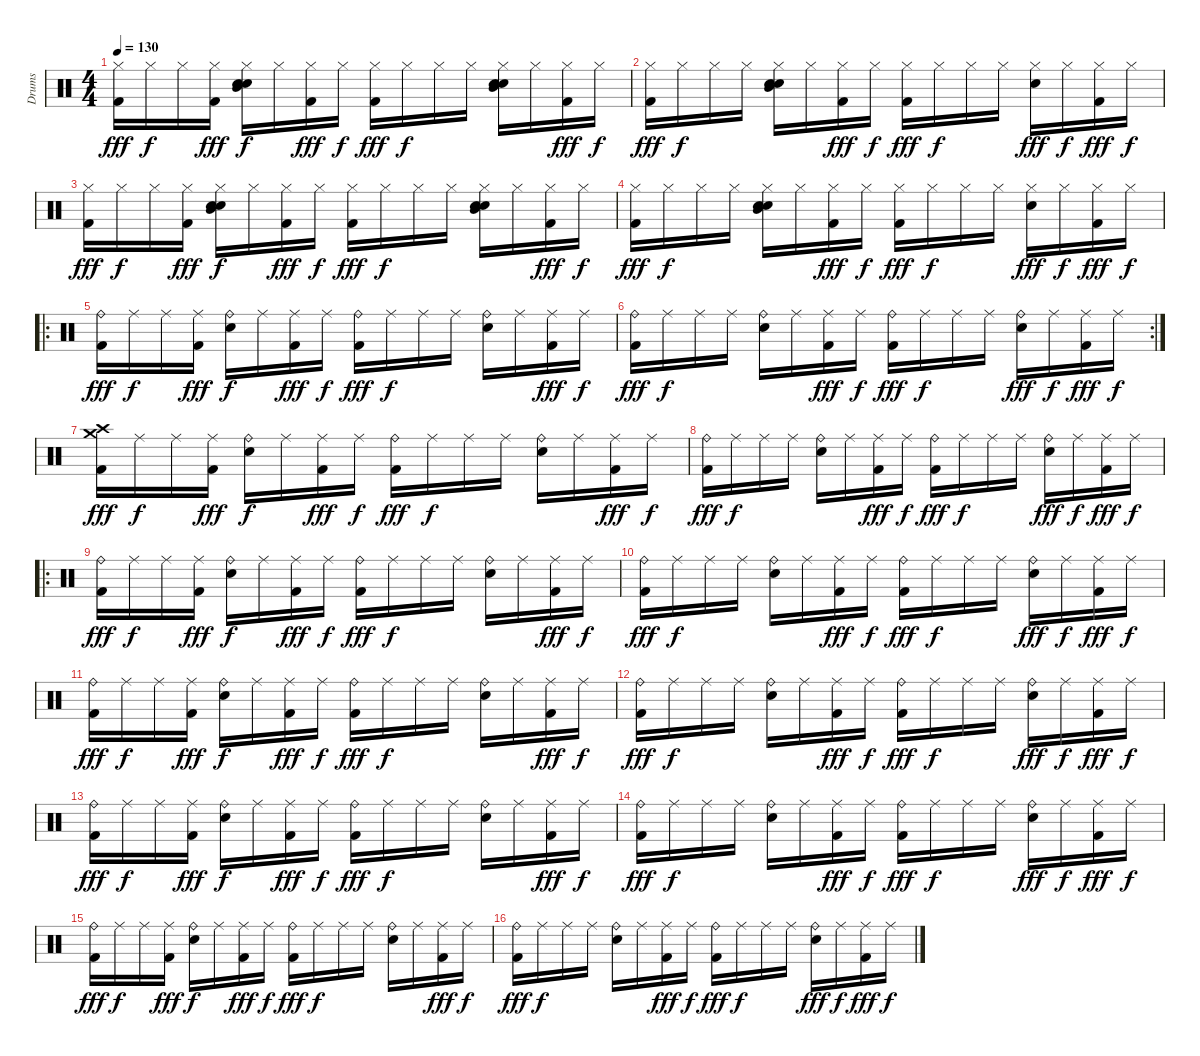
\track ("Drums" "Drums") {instrument percussion}
\staff {score}
\articulation defaults
\ts (4 4)
\tempo 130
\clef neutral
\ks c
("Hi-Hat (closed)" "Kick (hit) 2").16{dy fff} "Hi-Hat (closed)".16{dy f} "Hi-Hat (closed)".16 ("Hi-Hat (closed)" "Kick (hit) 2").16{dy fff} ("Electric Snare (hit)" "Electric Snare (hit)" "Mid Tom (hit)" "Hi-Hat (closed)").16{dy f} "Hi-Hat (closed)".16 ("Hi-Hat (closed)" "Kick (hit) 2").16{dy fff} "Hi-Hat (closed)".16{dy f} ("Hi-Hat (closed)" "Kick (hit) 2").16{dy fff} "Hi-Hat (closed)".16{dy f} "Hi-Hat (closed)".16 "Hi-Hat (closed)".16 ("Electric Snare (hit)" "Electric Snare (hit)" "Mid Tom (hit)" "Hi-Hat (closed)").16 "Hi-Hat (closed)".16 ("Hi-Hat (closed)" "Kick (hit) 2").16{dy fff} "Hi-Hat (closed)".16{dy f} |
("Hi-Hat (closed)" "Kick (hit) 2").16{dy fff} "Hi-Hat (closed)".16{dy f} "Hi-Hat (closed)".16 "Hi-Hat (closed)".16 ("Electric Snare (hit)" "Electric Snare (hit)" "Mid Tom (hit)" "Hi-Hat (closed)").16 "Hi-Hat (closed)".16 ("Hi-Hat (closed)" "Kick (hit) 2").16{dy fff} "Hi-Hat (closed)".16{dy f} ("Hi-Hat (closed)" "Kick (hit) 2").16{dy fff} "Hi-Hat (closed)".16{dy f} "Hi-Hat (closed)".16 "Hi-Hat (closed)".16 ("Hi-Hat (closed)" "Hand Clap (hit)").16{dy fff} "Hi-Hat (closed)".16{dy f} ("Hi-Hat (closed)" "Kick (hit) 2").16{dy fff} "Hi-Hat (closed)".16{dy f} |
("Hi-Hat (closed)" "Kick (hit) 2").16{dy fff} "Hi-Hat (closed)".16{dy f} "Hi-Hat (closed)".16 ("Hi-Hat (closed)" "Kick (hit) 2").16{dy fff} ("Electric Snare (hit)" "Electric Snare (hit)" "Mid Tom (hit)" "Hi-Hat (closed)").16{dy f} "Hi-Hat (closed)".16 ("Hi-Hat (closed)" "Kick (hit) 2").16{dy fff} "Hi-Hat (closed)".16{dy f} ("Hi-Hat (closed)" "Kick (hit) 2").16{dy fff} "Hi-Hat (closed)".16{dy f} "Hi-Hat (closed)".16 "Hi-Hat (closed)".16 ("Electric Snare (hit)" "Electric Snare (hit)" "Mid Tom (hit)" "Hi-Hat (closed)").16 "Hi-Hat (closed)".16 ("Hi-Hat (closed)" "Kick (hit) 2").16{dy fff} "Hi-Hat (closed)".16{dy f} |
("Hi-Hat (closed)" "Kick (hit) 2").16{dy fff} "Hi-Hat (closed)".16{dy f} "Hi-Hat (closed)".16 "Hi-Hat (closed)".16 ("Electric Snare (hit)" "Electric Snare (hit)" "Mid Tom (hit)" "Hi-Hat (closed)").16 "Hi-Hat (closed)".16 ("Hi-Hat (closed)" "Kick (hit) 2").16{dy fff} "Hi-Hat (closed)".16{dy f} ("Hi-Hat (closed)" "Kick (hit) 2").16{dy fff} "Hi-Hat (closed)".16{dy f} "Hi-Hat (closed)".16 "Hi-Hat (closed)".16 ("Hi-Hat (closed)" "Hand Clap (hit)").16{dy fff} "Hi-Hat (closed)".16{dy f} ("Hi-Hat (closed)" "Kick (hit) 2").16{dy fff} "Hi-Hat (closed)".16{dy f} |
\ro
("Ride (bell)" "Kick (hit) 2").16{dy fff} "Ride (middle)".16{dy f} "Ride (middle)".16 ("Ride (middle)" "Kick (hit) 2").16{dy fff} ("Ride (bell)" "Electric Snare (hit)").16{dy f} "Ride (middle)".16 ("Ride (middle)" "Kick (hit) 2").16{dy fff} "Ride (middle)".16{dy f} ("Ride (bell)" "Kick (hit) 2").16{dy fff} "Ride (middle)".16{dy f} "Ride (middle)".16 "Ride (middle)".16 ("Ride (bell)" "Electric Snare (hit)").16 "Ride (middle)".16 ("Ride (middle)" "Kick (hit) 2").16{dy fff} "Ride (middle)".16{dy f} |
\rc 2
("Ride (bell)" "Kick (hit) 2").16{dy fff} "Ride (middle)".16{dy f} "Ride (middle)".16 "Ride (middle)".16 ("Ride (bell)" "Electric Snare (hit)").16 "Ride (middle)".16 ("Ride (middle)" "Kick (hit) 2").16{dy fff} "Ride (middle)".16{dy f} ("Ride (bell)" "Kick (hit) 2").16{dy fff} "Ride (middle)".16{dy f} "Ride (middle)".16 "Ride (middle)".16 ("Ride (bell)" "Hand Clap (hit)").16{dy fff} "Ride (middle)".16{dy f} ("Ride (middle)" "Kick (hit) 2").16{dy fff} "Ride (middle)".16{dy f} |
("Crash high (hit)" "Crash medium (hit)" "Kick (hit) 2").16{dy fff} "Ride (middle)".16{dy f} "Ride (middle)".16 ("Ride (middle)" "Kick (hit) 2").16{dy fff} ("Ride (bell)" "Electric Snare (hit)").16{dy f} "Ride (middle)".16 ("Ride (middle)" "Kick (hit) 2").16{dy fff} "Ride (middle)".16{dy f} ("Ride (bell)" "Kick (hit) 2").16{dy fff} "Ride (middle)".16{dy f} "Ride (middle)".16 "Ride (middle)".16 ("Ride (bell)" "Electric Snare (hit)").16 "Ride (middle)".16 ("Ride (middle)" "Kick (hit) 2").16{dy fff} "Ride (middle)".16{dy f} |
("Ride (bell)" "Kick (hit) 2").16{dy fff} "Ride (middle)".16{dy f} "Ride (middle)".16 "Ride (middle)".16 ("Ride (bell)" "Electric Snare (hit)").16 "Ride (middle)".16 ("Ride (middle)" "Kick (hit) 2").16{dy fff} "Ride (middle)".16{dy f} ("Ride (bell)" "Kick (hit) 2").16{dy fff} "Ride (middle)".16{dy f} "Ride (middle)".16 "Ride (middle)".16 ("Ride (bell)" "Hand Clap (hit)").16{dy fff} "Ride (middle)".16{dy f} ("Ride (middle)" "Kick (hit) 2").16{dy fff} "Ride (middle)".16{dy f} |
\ro
("Ride (bell)" "Kick (hit) 2").16{dy fff} "Ride (middle)".16{dy f} "Ride (middle)".16 ("Ride (middle)" "Kick (hit) 2").16{dy fff} ("Ride (bell)" "Electric Snare (hit)").16{dy f} "Ride (middle)".16 ("Ride (middle)" "Kick (hit) 2").16{dy fff} "Ride (middle)".16{dy f} ("Ride (bell)" "Kick (hit) 2").16{dy fff} "Ride (middle)".16{dy f} "Ride (middle)".16 "Ride (middle)".16 ("Ride (bell)" "Electric Snare (hit)").16 "Ride (middle)".16 ("Ride (middle)" "Kick (hit) 2").16{dy fff} "Ride (middle)".16{dy f} |
("Ride (bell)" "Kick (hit) 2").16{dy fff} "Ride (middle)".16{dy f} "Ride (middle)".16 "Ride (middle)".16 ("Ride (bell)" "Electric Snare (hit)").16 "Ride (middle)".16 ("Ride (middle)" "Kick (hit) 2").16{dy fff} "Ride (middle)".16{dy f} ("Ride (bell)" "Kick (hit) 2").16{dy fff} "Ride (middle)".16{dy f} "Ride (middle)".16 "Ride (middle)".16 ("Ride (bell)" "Hand Clap (hit)").16{dy fff} "Ride (middle)".16{dy f} ("Ride (middle)" "Kick (hit) 2").16{dy fff} "Ride (middle)".16{dy f} |
("Ride (bell)" "Kick (hit) 2").16{dy fff} "Ride (middle)".16{dy f} "Ride (middle)".16 ("Ride (middle)" "Kick (hit) 2").16{dy fff} ("Ride (bell)" "Electric Snare (hit)").16{dy f} "Ride (middle)".16 ("Ride (middle)" "Kick (hit) 2").16{dy fff} "Ride (middle)".16{dy f} ("Ride (bell)" "Kick (hit) 2").16{dy fff} "Ride (middle)".16{dy f} "Ride (middle)".16 "Ride (middle)".16 ("Ride (bell)" "Electric Snare (hit)").16 "Ride (middle)".16 ("Ride (middle)" "Kick (hit) 2").16{dy fff} "Ride (middle)".16{dy f} |
("Ride (bell)" "Kick (hit) 2").16{dy fff} "Ride (middle)".16{dy f} "Ride (middle)".16 "Ride (middle)".16 ("Ride (bell)" "Electric Snare (hit)").16 "Ride (middle)".16 ("Ride (middle)" "Kick (hit) 2").16{dy fff} "Ride (middle)".16{dy f} ("Ride (bell)" "Kick (hit) 2").16{dy fff} "Ride (middle)".16{dy f} "Ride (middle)".16 "Ride (middle)".16 ("Ride (bell)" "Hand Clap (hit)").16{dy fff} "Ride (middle)".16{dy f} ("Ride (middle)" "Kick (hit) 2").16{dy fff} "Ride (middle)".16{dy f} |
("Ride (bell)" "Kick (hit) 2").16{dy fff} "Ride (middle)".16{dy f} "Ride (middle)".16 ("Ride (middle)" "Kick (hit) 2").16{dy fff} ("Ride (bell)" "Electric Snare (hit)").16{dy f} "Ride (middle)".16 ("Ride (middle)" "Kick (hit) 2").16{dy fff} "Ride (middle)".16{dy f} ("Ride (bell)" "Kick (hit) 2").16{dy fff} "Ride (middle)".16{dy f} "Ride (middle)".16 "Ride (middle)".16 ("Ride (bell)" "Electric Snare (hit)").16 "Ride (middle)".16 ("Ride (middle)" "Kick (hit) 2").16{dy fff} "Ride (middle)".16{dy f} |
("Ride (bell)" "Kick (hit) 2").16{dy fff} "Ride (middle)".16{dy f} "Ride (middle)".16 "Ride (middle)".16 ("Ride (bell)" "Electric Snare (hit)").16 "Ride (middle)".16 ("Ride (middle)" "Kick (hit) 2").16{dy fff} "Ride (middle)".16{dy f} ("Ride (bell)" "Kick (hit) 2").16{dy fff} "Ride (middle)".16{dy f} "Ride (middle)".16 "Ride (middle)".16 ("Ride (bell)" "Hand Clap (hit)").16{dy fff} "Ride (middle)".16{dy f} ("Ride (middle)" "Kick (hit) 2").16{dy fff} "Ride (middle)".16{dy f} |
("Ride (bell)" "Kick (hit) 2").16{dy fff} "Ride (middle)".16{dy f} "Ride (middle)".16 ("Ride (middle)" "Kick (hit) 2").16{dy fff} ("Ride (bell)" "Electric Snare (hit)").16{dy f} "Ride (middle)".16 ("Ride (middle)" "Kick (hit) 2").16{dy fff} "Ride (middle)".16{dy f} ("Ride (bell)" "Kick (hit) 2").16{dy fff} "Ride (middle)".16{dy f} "Ride (middle)".16 "Ride (middle)".16 ("Ride (bell)" "Electric Snare (hit)").16 "Ride (middle)".16 ("Ride (middle)" "Kick (hit) 2").16{dy fff} "Ride (middle)".16{dy f} |
("Ride (bell)" "Kick (hit) 2").16{dy fff} "Ride (middle)".16{dy f} "Ride (middle)".16 "Ride (middle)".16 ("Ride (bell)" "Electric Snare (hit)").16 "Ride (middle)".16 ("Ride (middle)" "Kick (hit) 2").16{dy fff} "Ride (middle)".16{dy f} ("Ride (bell)" "Kick (hit) 2").16{dy fff} "Ride (middle)".16{dy f} "Ride (middle)".16 "Ride (middle)".16 ("Ride (bell)" "Hand Clap (hit)").16{dy fff} "Ride (middle)".16{dy f} ("Ride (middle)" "Kick (hit) 2").16{dy fff} "Ride (middle)".16{dy f}
